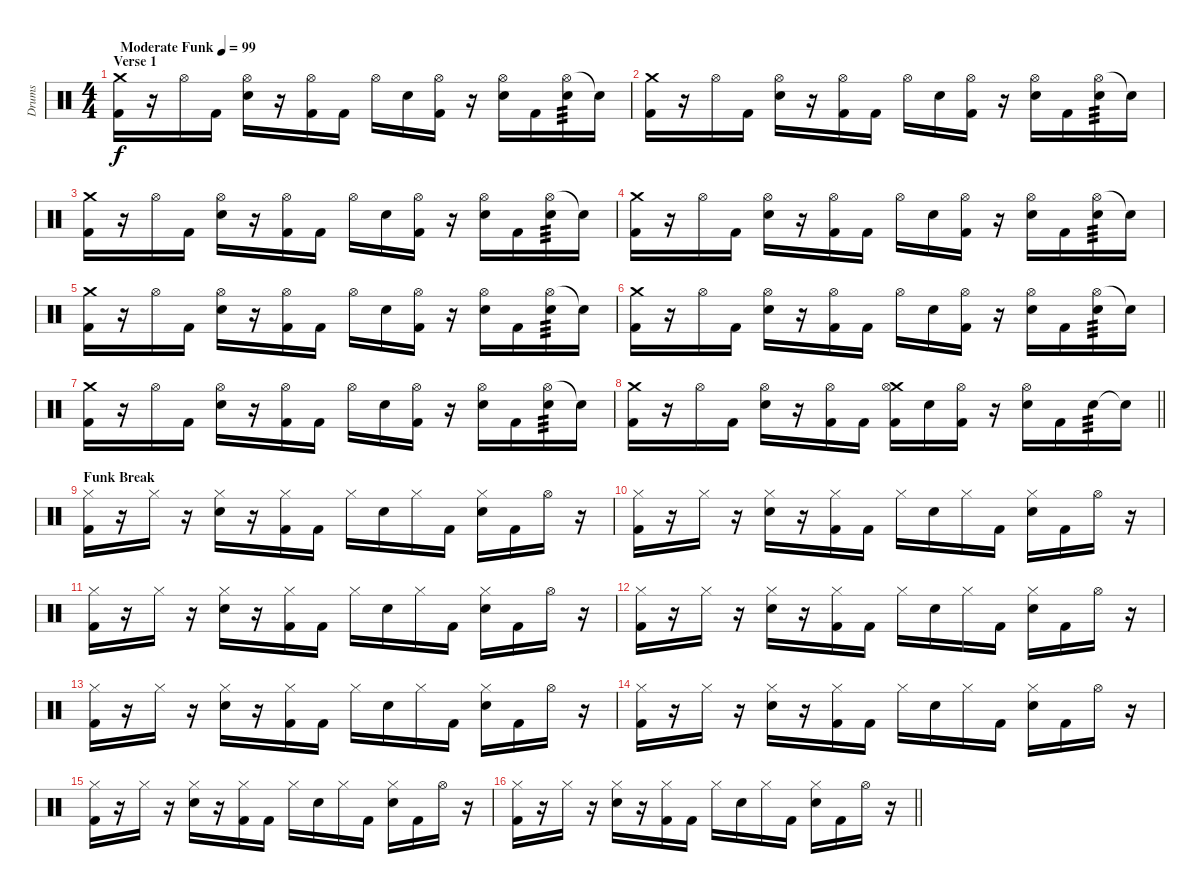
\track ("Drums" "Drums") {instrument percussion}
\staff {score}
\articulation defaults
\ts (4 4)
\section ("" "Verse 1")
\tempo (99 "Moderate Funk")
\clef neutral
\ks c
("Crash medium (hit)" "Kick (hit) 2").16{dy f} r.16 "Hi-Hat (open)".16 "Kick (hit) 2".16 ("Hi-Hat (open)" "Electric Snare (hit)").16 r.16 ("Hi-Hat (open)" "Kick (hit) 2").16 "Kick (hit) 2".16 "Hi-Hat (open)".16 "Electric Snare (hit)".16 ("Hi-Hat (open)" "Kick (hit) 2").16 r.16 ("Hi-Hat (open)" "Electric Snare (hit)").16 "Kick (hit) 2".16 ("Hi-Hat (open)" "Electric Snare (hit)").16{tp 3} "Electric Snare (hit)"{t}.16 |
("Crash medium (hit)" "Kick (hit) 2").16 r.16 "Hi-Hat (open)".16 "Kick (hit) 2".16 ("Hi-Hat (open)" "Electric Snare (hit)").16 r.16 ("Hi-Hat (open)" "Kick (hit) 2").16 "Kick (hit) 2".16 "Hi-Hat (open)".16 "Electric Snare (hit)".16 ("Hi-Hat (open)" "Kick (hit) 2").16 r.16 ("Hi-Hat (open)" "Electric Snare (hit)").16 "Kick (hit) 2".16 ("Hi-Hat (open)" "Electric Snare (hit)").16{tp 3} "Electric Snare (hit)"{t}.16 |
("Crash medium (hit)" "Kick (hit) 2").16 r.16 "Hi-Hat (open)".16 "Kick (hit) 2".16 ("Hi-Hat (open)" "Electric Snare (hit)").16 r.16 ("Hi-Hat (open)" "Kick (hit) 2").16 "Kick (hit) 2".16 "Hi-Hat (open)".16 "Electric Snare (hit)".16 ("Hi-Hat (open)" "Kick (hit) 2").16 r.16 ("Hi-Hat (open)" "Electric Snare (hit)").16 "Kick (hit) 2".16 ("Hi-Hat (open)" "Electric Snare (hit)").16{tp 3} "Electric Snare (hit)"{t}.16 |
("Crash medium (hit)" "Kick (hit) 2").16 r.16 "Hi-Hat (open)".16 "Kick (hit) 2".16 ("Hi-Hat (open)" "Electric Snare (hit)").16 r.16 ("Hi-Hat (open)" "Kick (hit) 2").16 "Kick (hit) 2".16 "Hi-Hat (open)".16 "Electric Snare (hit)".16 ("Hi-Hat (open)" "Kick (hit) 2").16 r.16 ("Hi-Hat (open)" "Electric Snare (hit)").16 "Kick (hit) 2".16 ("Hi-Hat (open)" "Electric Snare (hit)").16{tp 3} "Electric Snare (hit)"{t}.16 |
("Crash medium (hit)" "Kick (hit) 2").16 r.16 "Hi-Hat (open)".16 "Kick (hit) 2".16 ("Hi-Hat (open)" "Electric Snare (hit)").16 r.16 ("Hi-Hat (open)" "Kick (hit) 2").16 "Kick (hit) 2".16 "Hi-Hat (open)".16 "Electric Snare (hit)".16 ("Hi-Hat (open)" "Kick (hit) 2").16 r.16 ("Hi-Hat (open)" "Electric Snare (hit)").16 "Kick (hit) 2".16 ("Hi-Hat (open)" "Electric Snare (hit)").16{tp 3} "Electric Snare (hit)"{t}.16 |
("Crash medium (hit)" "Kick (hit) 2").16 r.16 "Hi-Hat (open)".16 "Kick (hit) 2".16 ("Hi-Hat (open)" "Electric Snare (hit)").16 r.16 ("Hi-Hat (open)" "Kick (hit) 2").16 "Kick (hit) 2".16 "Hi-Hat (open)".16 "Electric Snare (hit)".16 ("Hi-Hat (open)" "Kick (hit) 2").16 r.16 ("Hi-Hat (open)" "Electric Snare (hit)").16 "Kick (hit) 2".16 ("Hi-Hat (open)" "Electric Snare (hit)").16{tp 3} "Electric Snare (hit)"{t}.16 |
("Crash medium (hit)" "Kick (hit) 2").16 r.16 "Hi-Hat (open)".16 "Kick (hit) 2".16 ("Hi-Hat (open)" "Electric Snare (hit)").16 r.16 ("Hi-Hat (open)" "Kick (hit) 2").16 "Kick (hit) 2".16 "Hi-Hat (open)".16 "Electric Snare (hit)".16 ("Hi-Hat (open)" "Kick (hit) 2").16 r.16 ("Hi-Hat (open)" "Electric Snare (hit)").16 "Kick (hit) 2".16 ("Hi-Hat (open)" "Electric Snare (hit)").16{tp 3} "Electric Snare (hit)"{t}.16 |
\barLineRight lightlight
("Crash medium (hit)" "Kick (hit) 2").16 r.16 "Hi-Hat (open)".16 "Kick (hit) 2".16 ("Hi-Hat (open)" "Electric Snare (hit)").16 r.16 ("Hi-Hat (open)" "Kick (hit) 2").16 "Kick (hit) 2".16 ("Crash medium (hit)" "Hi-Hat (open)" "Kick (hit) 2").16 "Electric Snare (hit)".16 ("Hi-Hat (open)" "Kick (hit) 2").16 r.16 ("Hi-Hat (open)" "Electric Snare (hit)").16 "Kick (hit) 2".16 "Electric Snare (hit)".16{tp 3} "Electric Snare (hit)"{t}.16 |
\section ("" "Funk Break")
("Hi-Hat (closed)" "Kick (hit) 2").16 r.16 "Hi-Hat (closed)".16 r.16 ("Hi-Hat (closed)" "Electric Snare (hit)").16 r.16 ("Hi-Hat (closed)" "Kick (hit) 2").16 "Kick (hit) 2".16 "Hi-Hat (closed)".16 "Electric Snare (hit)".16 "Hi-Hat (closed)".16 "Kick (hit) 2".16 ("Hi-Hat (closed)" "Electric Snare (hit)").16 "Kick (hit) 2".16 "Hi-Hat (open)".16 r.16 |
("Hi-Hat (closed)" "Kick (hit) 2").16 r.16 "Hi-Hat (closed)".16 r.16 ("Hi-Hat (closed)" "Electric Snare (hit)").16 r.16 ("Hi-Hat (closed)" "Kick (hit) 2").16 "Kick (hit) 2".16 "Hi-Hat (closed)".16 "Electric Snare (hit)".16 "Hi-Hat (closed)".16 "Kick (hit) 2".16 ("Hi-Hat (closed)" "Electric Snare (hit)").16 "Kick (hit) 2".16 "Hi-Hat (open)".16 r.16 |
("Hi-Hat (closed)" "Kick (hit) 2").16 r.16 "Hi-Hat (closed)".16 r.16 ("Hi-Hat (closed)" "Electric Snare (hit)").16 r.16 ("Hi-Hat (closed)" "Kick (hit) 2").16 "Kick (hit) 2".16 "Hi-Hat (closed)".16 "Electric Snare (hit)".16 "Hi-Hat (closed)".16 "Kick (hit) 2".16 ("Hi-Hat (closed)" "Electric Snare (hit)").16 "Kick (hit) 2".16 "Hi-Hat (open)".16 r.16 |
("Hi-Hat (closed)" "Kick (hit) 2").16 r.16 "Hi-Hat (closed)".16 r.16 ("Hi-Hat (closed)" "Electric Snare (hit)").16 r.16 ("Hi-Hat (closed)" "Kick (hit) 2").16 "Kick (hit) 2".16 "Hi-Hat (closed)".16 "Electric Snare (hit)".16 "Hi-Hat (closed)".16 "Kick (hit) 2".16 ("Hi-Hat (closed)" "Electric Snare (hit)").16 "Kick (hit) 2".16 "Hi-Hat (open)".16 r.16 |
("Hi-Hat (closed)" "Kick (hit) 2").16 r.16 "Hi-Hat (closed)".16 r.16 ("Hi-Hat (closed)" "Electric Snare (hit)").16 r.16 ("Hi-Hat (closed)" "Kick (hit) 2").16 "Kick (hit) 2".16 "Hi-Hat (closed)".16 "Electric Snare (hit)".16 "Hi-Hat (closed)".16 "Kick (hit) 2".16 ("Hi-Hat (closed)" "Electric Snare (hit)").16 "Kick (hit) 2".16 "Hi-Hat (open)".16 r.16 |
("Hi-Hat (closed)" "Kick (hit) 2").16 r.16 "Hi-Hat (closed)".16 r.16 ("Hi-Hat (closed)" "Electric Snare (hit)").16 r.16 ("Hi-Hat (closed)" "Kick (hit) 2").16 "Kick (hit) 2".16 "Hi-Hat (closed)".16 "Electric Snare (hit)".16 "Hi-Hat (closed)".16 "Kick (hit) 2".16 ("Hi-Hat (closed)" "Electric Snare (hit)").16 "Kick (hit) 2".16 "Hi-Hat (open)".16 r.16 |
("Hi-Hat (closed)" "Kick (hit) 2").16 r.16 "Hi-Hat (closed)".16 r.16 ("Hi-Hat (closed)" "Electric Snare (hit)").16 r.16 ("Hi-Hat (closed)" "Kick (hit) 2").16 "Kick (hit) 2".16 "Hi-Hat (closed)".16 "Electric Snare (hit)".16 "Hi-Hat (closed)".16 "Kick (hit) 2".16 ("Hi-Hat (closed)" "Electric Snare (hit)").16 "Kick (hit) 2".16 "Hi-Hat (open)".16 r.16 |
\barLineRight lightlight
("Hi-Hat (closed)" "Kick (hit) 2").16 r.16 "Hi-Hat (closed)".16 r.16 ("Hi-Hat (closed)" "Electric Snare (hit)").16 r.16 ("Hi-Hat (closed)" "Kick (hit) 2").16 "Kick (hit) 2".16 "Hi-Hat (closed)".16 "Electric Snare (hit)".16 "Hi-Hat (closed)".16 "Kick (hit) 2".16 ("Hi-Hat (closed)" "Electric Snare (hit)").16 "Kick (hit) 2".16 "Hi-Hat (open)".16 r.16
